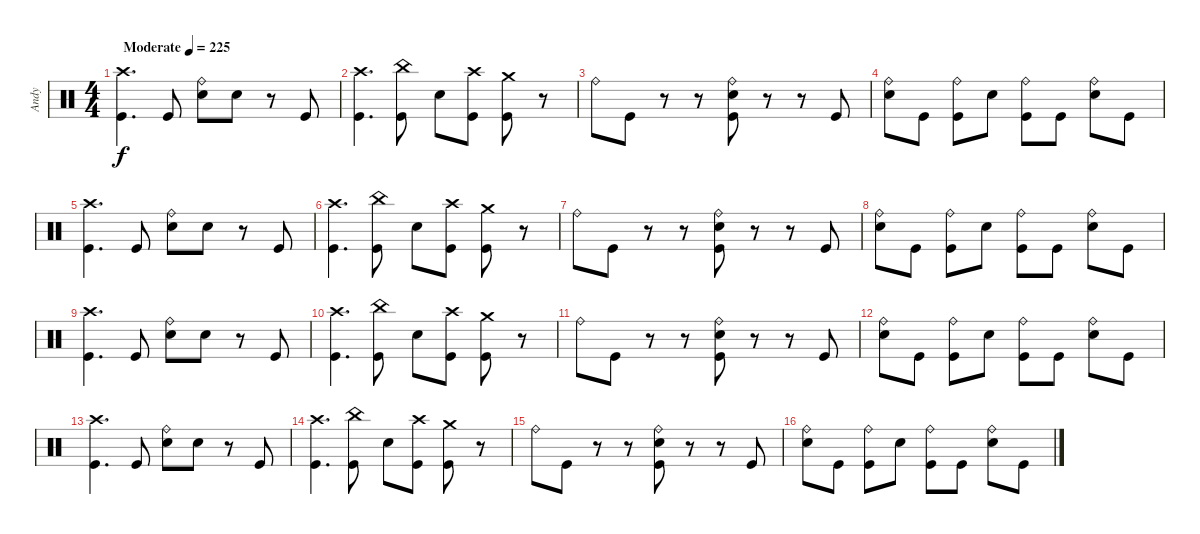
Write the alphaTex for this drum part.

\track ("Andy" "Andy") {instrument percussion}
\staff {score}
\articulation defaults
\ts (4 4)
\tempo (225 "Moderate")
\clef neutral
\ks c
("Kick (hit)" "Crash high (hit)").4{d dy f} "Kick (hit)".8 ("Snare (hit) 2" "Ride (bell)").8 "Snare (hit) 2".8 r.8 "Kick (hit)".8 |
("Kick (hit)" "Crash high (hit)").4{d} ("Kick (hit)" "China (hit)").8 "Snare (hit) 2".8 ("Kick (hit)" "Crash high (hit)").8 ("Crash medium (hit)" "Kick (hit)").8 r.8 |
"Ride (bell)".8 "Kick (hit)".8 r.8 r.8 ("Kick (hit)" "Snare (hit) 2" "Ride (bell)").8 r.8 r.8 "Kick (hit)".8 |
("Snare (hit) 2" "Ride (bell)").8 "Kick (hit)".8 ("Kick (hit)" "Ride (bell)").8 "Snare (hit) 2".8 ("Kick (hit)" "Ride (bell)").8 "Kick (hit)".8 ("Snare (hit) 2" "Ride (bell)").8 "Kick (hit)".8 |
("Kick (hit)" "Crash high (hit)").4{d} "Kick (hit)".8 ("Snare (hit) 2" "Ride (bell)").8 "Snare (hit) 2".8 r.8 "Kick (hit)".8 |
("Kick (hit)" "Crash high (hit)").4{d} ("Kick (hit)" "China (hit)").8 "Snare (hit) 2".8 ("Kick (hit)" "Crash high (hit)").8 ("Crash medium (hit)" "Kick (hit)").8 r.8 |
"Ride (bell)".8 "Kick (hit)".8 r.8 r.8 ("Kick (hit)" "Snare (hit) 2" "Ride (bell)").8 r.8 r.8 "Kick (hit)".8 |
("Snare (hit) 2" "Ride (bell)").8 "Kick (hit)".8 ("Kick (hit)" "Ride (bell)").8 "Snare (hit) 2".8 ("Kick (hit)" "Ride (bell)").8 "Kick (hit)".8 ("Snare (hit) 2" "Ride (bell)").8 "Kick (hit)".8 |
("Kick (hit)" "Crash high (hit)").4{d} "Kick (hit)".8 ("Snare (hit) 2" "Ride (bell)").8 "Snare (hit) 2".8 r.8 "Kick (hit)".8 |
("Kick (hit)" "Crash high (hit)").4{d} ("Kick (hit)" "China (hit)").8 "Snare (hit) 2".8 ("Kick (hit)" "Crash high (hit)").8 ("Crash medium (hit)" "Kick (hit)").8 r.8 |
"Ride (bell)".8 "Kick (hit)".8 r.8 r.8 ("Kick (hit)" "Snare (hit) 2" "Ride (bell)").8 r.8 r.8 "Kick (hit)".8 |
("Snare (hit) 2" "Ride (bell)").8 "Kick (hit)".8 ("Kick (hit)" "Ride (bell)").8 "Snare (hit) 2".8 ("Kick (hit)" "Ride (bell)").8 "Kick (hit)".8 ("Snare (hit) 2" "Ride (bell)").8 "Kick (hit)".8 |
("Kick (hit)" "Crash high (hit)").4{d} "Kick (hit)".8 ("Snare (hit) 2" "Ride (bell)").8 "Snare (hit) 2".8 r.8 "Kick (hit)".8 |
("Kick (hit)" "Crash high (hit)").4{d} ("Kick (hit)" "China (hit)").8 "Snare (hit) 2".8 ("Kick (hit)" "Crash high (hit)").8 ("Crash medium (hit)" "Kick (hit)").8 r.8 |
"Ride (bell)".8 "Kick (hit)".8 r.8 r.8 ("Kick (hit)" "Snare (hit) 2" "Ride (bell)").8 r.8 r.8 "Kick (hit)".8 |
("Snare (hit) 2" "Ride (bell)").8 "Kick (hit)".8 ("Kick (hit)" "Ride (bell)").8 "Snare (hit) 2".8 ("Kick (hit)" "Ride (bell)").8 "Kick (hit)".8 ("Snare (hit) 2" "Ride (bell)").8 "Kick (hit)".8
